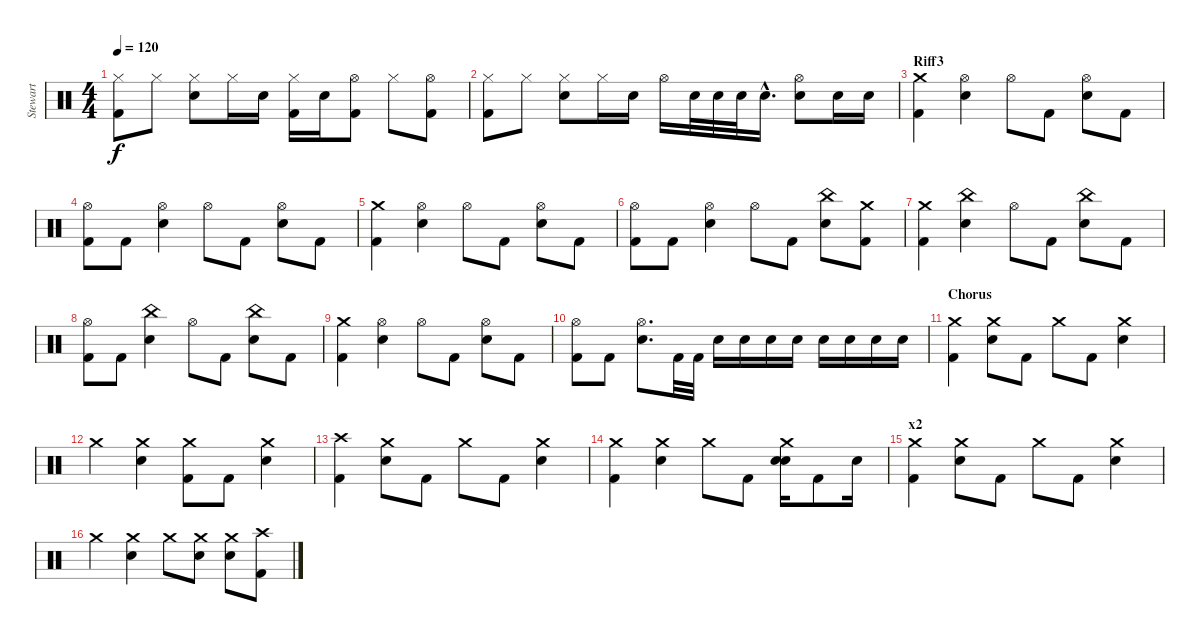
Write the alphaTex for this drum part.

\track ("Stewart" "Stewart") {instrument percussion}
\staff {score}
\articulation defaults
\ts (4 4)
\tempo 120
\clef neutral
\ks c
("Hi-Hat (closed)" "Kick (hit) 2").8{dy f} "Hi-Hat (closed)".8 ("Hi-Hat (closed)" "Electric Snare (hit)").8 "Hi-Hat (closed)".16 "Electric Snare (hit)".16 ("Hi-Hat (closed)" "Kick (hit) 2").16 "Electric Snare (hit)".16 ("Hi-Hat (open)" "Kick (hit) 2").8 "Hi-Hat (closed)".8 ("Hi-Hat (open)" "Kick (hit) 2").8 |
("Hi-Hat (closed)" "Kick (hit) 2").8 "Hi-Hat (closed)".8 ("Hi-Hat (closed)" "Electric Snare (hit)").8 "Hi-Hat (closed)".16 "Electric Snare (hit)".16 "Hi-Hat (open)".16 "Electric Snare (hit)".32 "Electric Snare (hit)".32 "Electric Snare (hit)".32 "Electric Snare (hit)"{hac}.16{d} ("Hi-Hat (open)" "Electric Snare (hit)").8 "Electric Snare (hit)".16 "Electric Snare (hit)".16 |
\section ("" "Riff3")
("Crash medium (hit)" "Kick (hit) 2").4 ("Hi-Hat (open)" "Electric Snare (hit)").4 "Hi-Hat (open)".8 "Kick (hit) 2".8 ("Hi-Hat (open)" "Electric Snare (hit)").8 "Kick (hit) 2".8 |
("Hi-Hat (open)" "Kick (hit) 2").8 "Kick (hit) 2".8 ("Hi-Hat (open)" "Electric Snare (hit)").4 "Hi-Hat (open)".8 "Kick (hit) 2".8 ("Hi-Hat (open)" "Electric Snare (hit)").8 "Kick (hit) 2".8 |
("Crash medium (hit)" "Kick (hit) 2").4 ("Hi-Hat (open)" "Electric Snare (hit)").4 "Hi-Hat (open)".8 "Kick (hit) 2".8 ("Hi-Hat (open)" "Electric Snare (hit)").8 "Kick (hit) 2".8 |
("Hi-Hat (open)" "Kick (hit) 2").8 "Kick (hit) 2".8 ("Hi-Hat (open)" "Electric Snare (hit)").4 "Hi-Hat (open)".8 "Kick (hit) 2".8 ("China (hit)" "Electric Snare (hit)").8 ("Crash medium (hit)" "Kick (hit) 2").8 |
("Crash medium (hit)" "Kick (hit) 2").4 ("China (hit)" "Electric Snare (hit)").4 "Hi-Hat (open)".8 "Kick (hit) 2".8 ("China (hit)" "Electric Snare (hit)").8 "Kick (hit) 2".8 |
("Hi-Hat (open)" "Kick (hit) 2").8 "Kick (hit) 2".8 ("China (hit)" "Electric Snare (hit)").4 "Hi-Hat (open)".8 "Kick (hit) 2".8 ("China (hit)" "Electric Snare (hit)").8 "Kick (hit) 2".8 |
("Crash medium (hit)" "Kick (hit) 2").4 ("Hi-Hat (open)" "Electric Snare (hit)").4 "Hi-Hat (open)".8 "Kick (hit) 2".8 ("Hi-Hat (open)" "Electric Snare (hit)").8 "Kick (hit) 2".8 |
("Hi-Hat (open)" "Kick (hit) 2").8 "Kick (hit) 2".8 ("Hi-Hat (open)" "Electric Snare (hit)").8{d} "Kick (hit) 2".32 "Kick (hit) 2".32 "Electric Snare (hit)".16 "Electric Snare (hit)".16 "Electric Snare (hit)".16 "Electric Snare (hit)".16 "Electric Snare (hit)".16 "Electric Snare (hit)".16 "Electric Snare (hit)".16 "Electric Snare (hit)".16 |
\section ("" "Chorus")
("Crash medium (hit)" "Kick (hit) 2").4 ("Crash medium (hit)" "Electric Snare (hit)").8 "Kick (hit) 2".8 "Crash medium (hit)".8 "Kick (hit) 2".8 ("Crash medium (hit)" "Electric Snare (hit)").4 |
"Crash medium (hit)".4 ("Crash medium (hit)" "Electric Snare (hit)").4 ("Crash medium (hit)" "Kick (hit) 2").8 "Kick (hit) 2".8 ("Crash medium (hit)" "Electric Snare (hit)").4 |
("Crash high (hit)" "Kick (hit) 2").4 ("Crash medium (hit)" "Electric Snare (hit)").8 "Kick (hit) 2".8 "Crash medium (hit)".8 "Kick (hit) 2".8 ("Crash medium (hit)" "Electric Snare (hit)").4 |
("Crash medium (hit)" "Kick (hit) 2").4 ("Crash medium (hit)" "Electric Snare (hit)").4 "Crash medium (hit)".8 "Kick (hit) 2".8 ("Crash medium (hit)" "Electric Snare (hit)" "Electric Snare (hit)").16 "Kick (hit) 2".8 "Electric Snare (hit)".16 |
\section ("" "x2")
("Crash medium (hit)" "Kick (hit) 2").4 ("Crash medium (hit)" "Electric Snare (hit)").8 "Kick (hit) 2".8 "Crash medium (hit)".8 "Kick (hit) 2".8 ("Crash medium (hit)" "Electric Snare (hit)").4 |
"Crash medium (hit)".4 ("Crash medium (hit)" "Electric Snare (hit)").4 "Crash medium (hit)".8 ("Crash medium (hit)" "Electric Snare (hit)").8 ("Crash medium (hit)" "Electric Snare (hit)").8 ("Crash high (hit)" "Kick (hit) 2").8
